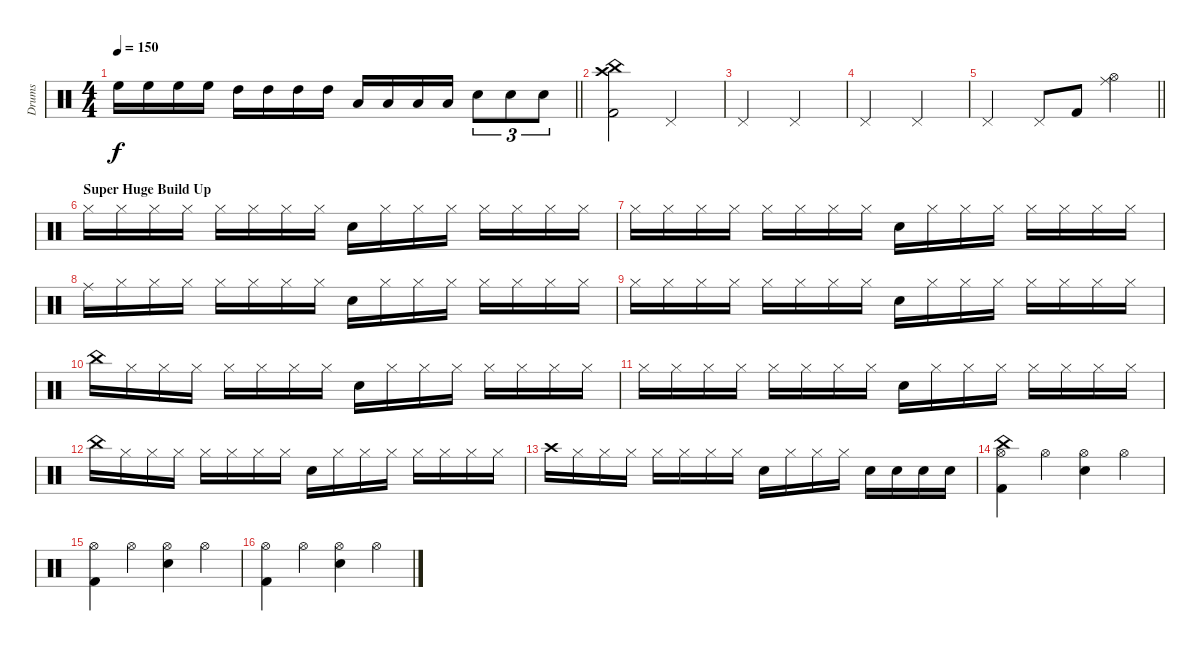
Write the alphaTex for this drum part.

\track ("Drums" "Drums") {instrument percussion}
\staff {score}
\articulation defaults
\ts (4 4)
\tempo 150
\clef neutral
\barLineRight lightlight
\ks c "High Floor Tom (hit)".16{dy f} "High Floor Tom (hit)".16 "High Floor Tom (hit)".16 "High Floor Tom (hit)".16 "High Tom (hit)".16 "High Tom (hit)".16 "High Tom (hit)".16 "High Tom (hit)".16 "Low Tom (hit)".16 "Low Tom (hit)".16 "Low Tom (hit)".16 "Low Tom (hit)".16 "Snare (hit) 2".8{tu (3 2)} "Snare (hit) 2".8{tu (3 2)} "Snare (hit) 2".8{tu (3 2)}
|
("Crash high (hit)" "China (hit)" "Kick (hit) 2").2 "Pedal Hi-Hat (hit)".2 |
"Pedal Hi-Hat (hit)".2 "Pedal Hi-Hat (hit)".2 |
"Pedal Hi-Hat (hit)".2 "Pedal Hi-Hat (hit)".2 |
\barLineRight lightlight "Pedal Hi-Hat (hit)".2 "Pedal Hi-Hat (hit)".8 "Kick (hit) 2".8
("Ride (middle)" "Hi-Hat (open)").4 |
\section ("" "Super Huge Build Up")
"Hi-Hat (closed)".16 "Hi-Hat (closed)".16 "Hi-Hat (closed)".16 "Hi-Hat (closed)".16 "Hi-Hat (closed)".16 "Hi-Hat (closed)".16 "Hi-Hat (closed)".16 "Hi-Hat (closed)".16 "Snare (hit) 2".16 "Hi-Hat (closed)".16 "Hi-Hat (closed)".16 "Hi-Hat (closed)".16 "Hi-Hat (closed)".16 "Hi-Hat (closed)".16 "Hi-Hat (closed)".16 "Hi-Hat (closed)".16 |
"Hi-Hat (closed)".16 "Hi-Hat (closed)".16 "Hi-Hat (closed)".16 "Hi-Hat (closed)".16 "Hi-Hat (closed)".16 "Hi-Hat (closed)".16 "Hi-Hat (closed)".16 "Hi-Hat (closed)".16 "Snare (hit) 2".16 "Hi-Hat (closed)".16 "Hi-Hat (closed)".16 "Hi-Hat (closed)".16 "Hi-Hat (closed)".16 "Hi-Hat (closed)".16 "Hi-Hat (closed)".16 "Hi-Hat (closed)".16 |
"Ride (middle)".16 "Hi-Hat (closed)".16 "Hi-Hat (closed)".16 "Hi-Hat (closed)".16 "Hi-Hat (closed)".16 "Hi-Hat (closed)".16 "Hi-Hat (closed)".16 "Hi-Hat (closed)".16 "Snare (hit) 2".16 "Hi-Hat (closed)".16 "Hi-Hat (closed)".16 "Hi-Hat (closed)".16 "Hi-Hat (closed)".16 "Hi-Hat (closed)".16 "Hi-Hat (closed)".16 "Hi-Hat (closed)".16 |
"Hi-Hat (closed)".16 "Hi-Hat (closed)".16 "Hi-Hat (closed)".16 "Hi-Hat (closed)".16 "Hi-Hat (closed)".16 "Hi-Hat (closed)".16 "Hi-Hat (closed)".16 "Hi-Hat (closed)".16 "Snare (hit) 2".16 "Hi-Hat (closed)".16 "Hi-Hat (closed)".16 "Hi-Hat (closed)".16 "Hi-Hat (closed)".16 "Hi-Hat (closed)".16 "Hi-Hat (closed)".16 "Hi-Hat (closed)".16 |
"China (hit)".16 "Hi-Hat (closed)".16 "Hi-Hat (closed)".16 "Hi-Hat (closed)".16 "Hi-Hat (closed)".16 "Hi-Hat (closed)".16 "Hi-Hat (closed)".16 "Hi-Hat (closed)".16 "Snare (hit) 2".16 "Hi-Hat (closed)".16 "Hi-Hat (closed)".16 "Hi-Hat (closed)".16 "Hi-Hat (closed)".16 "Hi-Hat (closed)".16 "Hi-Hat (closed)".16 "Hi-Hat (closed)".16 |
"Hi-Hat (closed)".16 "Hi-Hat (closed)".16 "Hi-Hat (closed)".16 "Hi-Hat (closed)".16 "Hi-Hat (closed)".16 "Hi-Hat (closed)".16 "Hi-Hat (closed)".16 "Hi-Hat (closed)".16 "Snare (hit) 2".16 "Hi-Hat (closed)".16 "Hi-Hat (closed)".16 "Hi-Hat (closed)".16 "Hi-Hat (closed)".16 "Hi-Hat (closed)".16 "Hi-Hat (closed)".16 "Hi-Hat (closed)".16 |
"China (hit)".16 "Hi-Hat (closed)".16 "Hi-Hat (closed)".16 "Hi-Hat (closed)".16 "Hi-Hat (closed)".16 "Hi-Hat (closed)".16 "Hi-Hat (closed)".16 "Hi-Hat (closed)".16 "Snare (hit) 2".16 "Hi-Hat (closed)".16 "Hi-Hat (closed)".16 "Hi-Hat (closed)".16 "Hi-Hat (closed)".16 "Hi-Hat (closed)".16 "Hi-Hat (closed)".16 "Hi-Hat (closed)".16 |
"Crash high (hit)".16 "Hi-Hat (closed)".16 "Hi-Hat (closed)".16 "Hi-Hat (closed)".16 "Hi-Hat (closed)".16 "Hi-Hat (closed)".16 "Hi-Hat (closed)".16 "Hi-Hat (closed)".16 "Snare (hit) 2".16 "Hi-Hat (closed)".16 "Hi-Hat (closed)".16 "Hi-Hat (closed)".16 "Snare (hit) 2".16 "Snare (hit) 2".16 "Snare (hit) 2".16 "Snare (hit) 2".16 |
("China (hit)" "Hi-Hat (open)" "Kick (hit) 2").4 "Hi-Hat (open)".4 ("Hi-Hat (open)" "Snare (hit) 2").4 "Hi-Hat (open)".4 |
("Hi-Hat (open)" "Kick (hit) 2").4 "Hi-Hat (open)".4 ("Hi-Hat (open)" "Snare (hit) 2").4 "Hi-Hat (open)".4 |
("Hi-Hat (open)" "Kick (hit) 2").4 "Hi-Hat (open)".4 ("Hi-Hat (open)" "Snare (hit) 2").4 "Hi-Hat (open)".4
